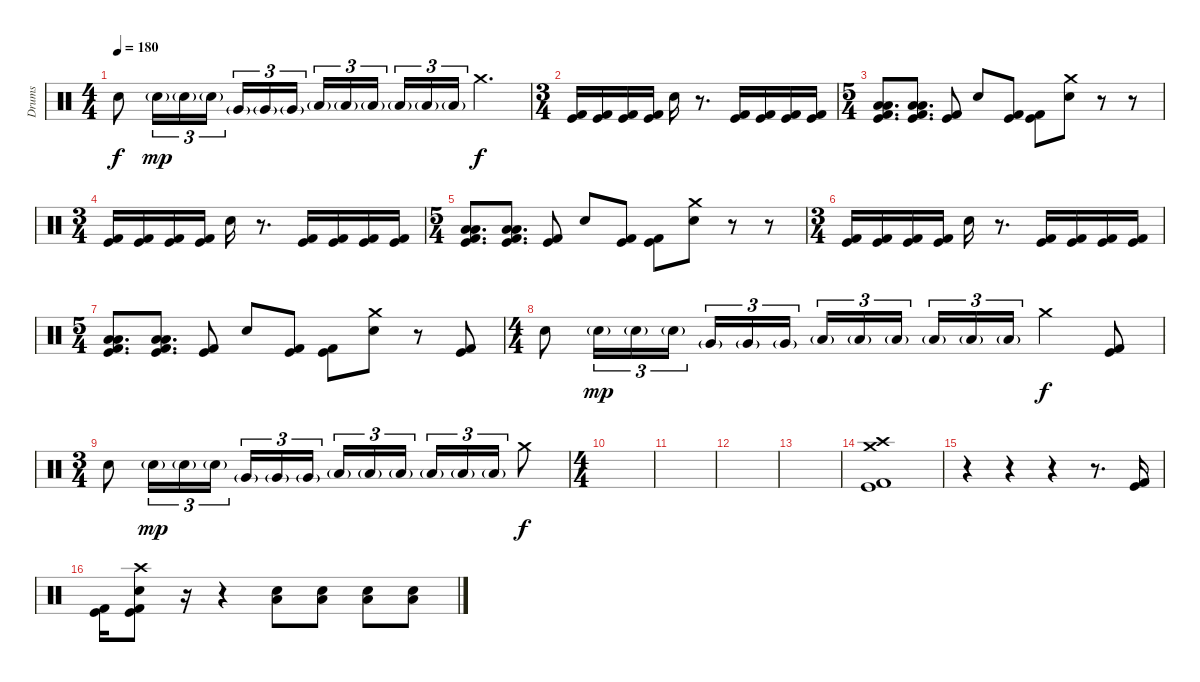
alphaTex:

\track ("Drums" "Drums") {instrument percussion}
\staff {score}
\articulation defaults
\ts (4 4)
\tempo 180
\clef neutral
\ks c "Electric Snare (hit)".8{dy f} "Electric Snare (hit)"{g}.16{tu (3 2) dy mp} "Electric Snare (hit)"{g}.16{tu (3 2)} "Electric Snare (hit)"{g}.16{tu (3 2)} "Very Low Tom (hit)"{g}.16{tu (3 2)} "Very Low Tom (hit)"{g}.16{tu (3 2)} "Very Low Tom (hit)"{g}.16{tu (3 2) beam splitsecondary} "Low Tom (hit)"{g}.16{tu (3 2)} "Low Tom (hit)"{g}.16{tu (3 2)} "Low Tom (hit)"{g}.16{tu (3 2)} "Low Floor Tom (hit)"{g}.16{tu (3 2)} "Low Floor Tom (hit)"{g}.16{tu (3 2)} "Low Floor Tom (hit)"{g}.16{tu (3 2)} "Crash medium (hit)".4{d dy f}
|
\ts (3 4)
("Kick (hit)" "Kick (hit) 2").16 ("Kick (hit)" "Kick (hit) 2").16 ("Kick (hit)" "Kick (hit) 2").16 ("Kick (hit)" "Kick (hit) 2").16 "Electric Snare (hit)".16 r.8{d} ("Kick (hit)" "Kick (hit) 2").16 ("Kick (hit)" "Kick (hit) 2").16 ("Kick (hit)" "Kick (hit) 2").16 ("Kick (hit)" "Kick (hit) 2").16 |
\ts (5 4)
("Low Floor Tom (hit)" "Low Tom (hit)" "Kick (hit)" "Kick (hit) 2").8{d} ("Low Floor Tom (hit)" "Low Tom (hit)" "Kick (hit)" "Kick (hit) 2").8{d} ("Kick (hit)" "Kick (hit) 2").8 "Electric Snare (hit)".8 ("Kick (hit)" "Kick (hit) 2").8 ("Kick (hit)" "Kick (hit) 2").8 ("Crash medium (hit)" "Electric Snare (hit)").8 r.8 r.8 |
\ts (3 4)
("Kick (hit)" "Kick (hit) 2").16 ("Kick (hit)" "Kick (hit) 2").16 ("Kick (hit)" "Kick (hit) 2").16 ("Kick (hit)" "Kick (hit) 2").16 "Electric Snare (hit)".16 r.8{d} ("Kick (hit)" "Kick (hit) 2").16 ("Kick (hit)" "Kick (hit) 2").16 ("Kick (hit)" "Kick (hit) 2").16 ("Kick (hit)" "Kick (hit) 2").16 |
\ts (5 4)
("Low Floor Tom (hit)" "Low Tom (hit)" "Kick (hit)" "Kick (hit) 2").8{d} ("Low Floor Tom (hit)" "Low Tom (hit)" "Kick (hit)" "Kick (hit) 2").8{d} ("Kick (hit)" "Kick (hit) 2").8 "Electric Snare (hit)".8 ("Kick (hit)" "Kick (hit) 2").8 ("Kick (hit)" "Kick (hit) 2").8 ("Crash medium (hit)" "Electric Snare (hit)").8 r.8 r.8 |
\ts (3 4)
("Kick (hit)" "Kick (hit) 2").16 ("Kick (hit)" "Kick (hit) 2").16 ("Kick (hit)" "Kick (hit) 2").16 ("Kick (hit)" "Kick (hit) 2").16 "Electric Snare (hit)".16 r.8{d} ("Kick (hit)" "Kick (hit) 2").16 ("Kick (hit)" "Kick (hit) 2").16 ("Kick (hit)" "Kick (hit) 2").16 ("Kick (hit)" "Kick (hit) 2").16 |
\ts (5 4)
("Low Floor Tom (hit)" "Low Tom (hit)" "Kick (hit)" "Kick (hit) 2").8{d} ("Low Floor Tom (hit)" "Low Tom (hit)" "Kick (hit)" "Kick (hit) 2").8{d} ("Kick (hit)" "Kick (hit) 2").8 "Electric Snare (hit)".8 ("Kick (hit)" "Kick (hit) 2").8 ("Kick (hit)" "Kick (hit) 2").8 ("Crash medium (hit)" "Electric Snare (hit)").8 r.8 ("Kick (hit)" "Kick (hit) 2").8 |
\ts (4 4)
"Electric Snare (hit)".8 "Electric Snare (hit)"{g}.16{tu (3 2) dy mp} "Electric Snare (hit)"{g}.16{tu (3 2)} "Electric Snare (hit)"{g}.16{tu (3 2)} "Very Low Tom (hit)"{g}.16{tu (3 2)} "Very Low Tom (hit)"{g}.16{tu (3 2)} "Very Low Tom (hit)"{g}.16{tu (3 2) beam splitsecondary} "Low Tom (hit)"{g}.16{tu (3 2)} "Low Tom (hit)"{g}.16{tu (3 2)} "Low Tom (hit)"{g}.16{tu (3 2)} "Low Floor Tom (hit)"{g}.16{tu (3 2)} "Low Floor Tom (hit)"{g}.16{tu (3 2)} "Low Floor Tom (hit)"{g}.16{tu (3 2)} "Crash medium (hit)".4{dy f} ("Kick (hit)" "Kick (hit) 2").8 |
\ts (3 4)
"Electric Snare (hit)".8 "Electric Snare (hit)"{g}.16{tu (3 2) dy mp} "Electric Snare (hit)"{g}.16{tu (3 2)} "Electric Snare (hit)"{g}.16{tu (3 2)} "Very Low Tom (hit)"{g}.16{tu (3 2)} "Very Low Tom (hit)"{g}.16{tu (3 2)} "Very Low Tom (hit)"{g}.16{tu (3 2) beam splitsecondary} "Low Tom (hit)"{g}.16{tu (3 2)} "Low Tom (hit)"{g}.16{tu (3 2)} "Low Tom (hit)"{g}.16{tu (3 2)} "Low Floor Tom (hit)"{g}.16{tu (3 2)} "Low Floor Tom (hit)"{g}.16{tu (3 2)} "Low Floor Tom (hit)"{g}.16{tu (3 2)} "Crash medium (hit)".8{dy f} |
\ts (4 4)
|
|
|
|
("Crash high (hit)" "Crash medium (hit)" "Kick (hit)" "Kick (hit) 2").1 |
r.4 r.4 r.4 r.8{d} ("Kick (hit)" "Kick (hit) 2").16 |
("Kick (hit)" "Kick (hit) 2").16 ("Crash high (hit)" "Electric Snare (hit)" "Kick (hit)" "Kick (hit) 2").8 r.16 r.4 ("Electric Snare (hit)" "Low Tom (hit)").8{volume 10} ("Electric Snare (hit)" "Low Tom (hit)").8{volume 16} ("Electric Snare (hit)" "Low Tom (hit)").8 ("Electric Snare (hit)" "Low Tom (hit)").8
